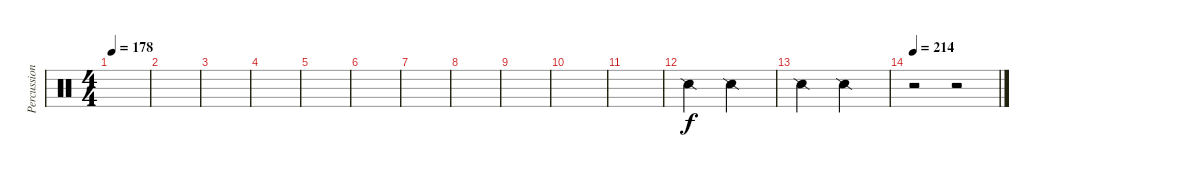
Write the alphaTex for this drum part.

\track ("Percussion" "Percussion") {instrument percussion}
\staff {score}
\articulation defaults
\ts (4 4)
\tempo 178
\clef neutral
\ks c
|
|
|
|
|
|
|
|
|
|
|
"Snare (side stick) 2".2 "Snare (side stick) 2".2 |
"Snare (side stick) 2".2 "Snare (side stick) 2".2 |
\tempo 214
r.2 r.2
